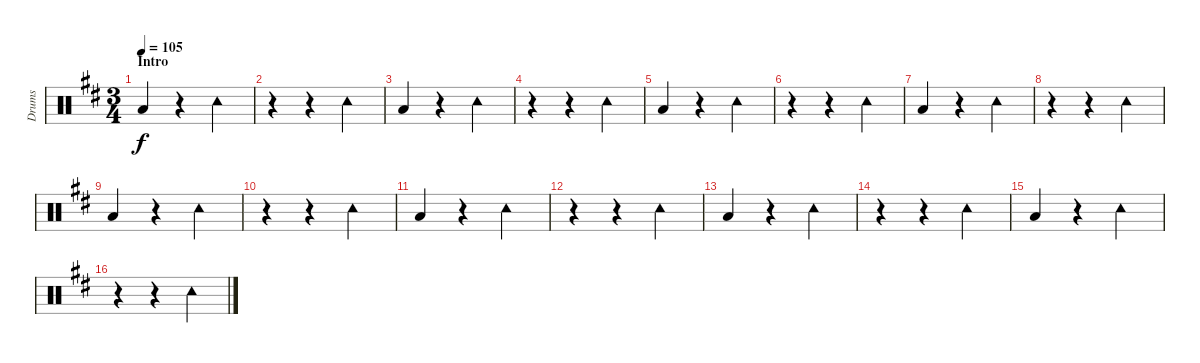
\track ("Drums" "Drums") {instrument percussion}
\staff {score}
\articulation defaults
\ts (3 4)
\section ("" "Intro")
\tempo 105
\clef neutral
\ks d "Low Floor Tom (hit)".4{dy f}
r.4 "Tambourine (hit)".4 |
r.4 r.4 "Tambourine (hit)".4 |
"Low Floor Tom (hit)".4 r.4 "Tambourine (hit)".4 |
r.4 r.4 "Tambourine (hit)".4 |
"Low Floor Tom (hit)".4 r.4 "Tambourine (hit)".4 |
r.4 r.4 "Tambourine (hit)".4 |
"Low Floor Tom (hit)".4 r.4 "Tambourine (hit)".4 |
r.4 r.4 "Tambourine (hit)".4 |
"Low Floor Tom (hit)".4 r.4 "Tambourine (hit)".4 |
r.4 r.4 "Tambourine (hit)".4 |
"Low Floor Tom (hit)".4 r.4 "Tambourine (hit)".4 |
r.4 r.4 "Tambourine (hit)".4 |
"Low Floor Tom (hit)".4 r.4 "Tambourine (hit)".4 |
r.4 r.4 "Tambourine (hit)".4 |
"Low Floor Tom (hit)".4 r.4 "Tambourine (hit)".4 |
r.4 r.4 "Tambourine (hit)".4
